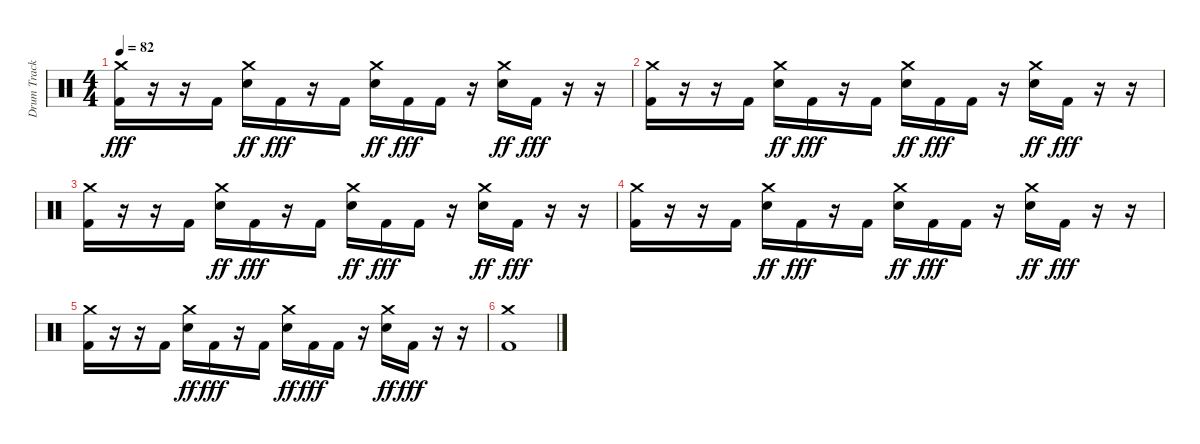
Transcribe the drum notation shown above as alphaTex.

\track ("Drum Track" "Drum Track") {instrument percussion}
\staff {score}
\articulation defaults
\ts (4 4)
\tempo 82
\clef neutral
\ks c
("Crash medium (hit)" "Kick (hit) 2").16{dy fff} r.16 r.16 "Kick (hit) 2".16 ("Crash medium (hit)" "Electric Snare (hit)").16{dy ff} "Kick (hit) 2".16{dy fff} r.16 "Kick (hit) 2".16 ("Crash medium (hit)" "Electric Snare (hit)").16{dy ff} "Kick (hit) 2".16{dy fff} "Kick (hit) 2".16 r.16 ("Crash medium (hit)" "Electric Snare (hit)").16{dy ff} "Kick (hit) 2".16{dy fff} r.16 r.16 |
("Crash medium (hit)" "Kick (hit) 2").16 r.16 r.16 "Kick (hit) 2".16 ("Crash medium (hit)" "Electric Snare (hit)").16{dy ff} "Kick (hit) 2".16{dy fff} r.16 "Kick (hit) 2".16 ("Crash medium (hit)" "Electric Snare (hit)").16{dy ff} "Kick (hit) 2".16{dy fff} "Kick (hit) 2".16 r.16 ("Crash medium (hit)" "Electric Snare (hit)").16{dy ff} "Kick (hit) 2".16{dy fff} r.16 r.16 |
("Crash medium (hit)" "Kick (hit) 2").16 r.16 r.16 "Kick (hit) 2".16 ("Crash medium (hit)" "Electric Snare (hit)").16{dy ff} "Kick (hit) 2".16{dy fff} r.16 "Kick (hit) 2".16 ("Crash medium (hit)" "Electric Snare (hit)").16{dy ff} "Kick (hit) 2".16{dy fff} "Kick (hit) 2".16 r.16 ("Crash medium (hit)" "Electric Snare (hit)").16{dy ff} "Kick (hit) 2".16{dy fff} r.16 r.16 |
("Crash medium (hit)" "Kick (hit) 2").16 r.16 r.16 "Kick (hit) 2".16 ("Crash medium (hit)" "Electric Snare (hit)").16{dy ff} "Kick (hit) 2".16{dy fff} r.16 "Kick (hit) 2".16 ("Crash medium (hit)" "Electric Snare (hit)").16{dy ff} "Kick (hit) 2".16{dy fff} "Kick (hit) 2".16 r.16 ("Crash medium (hit)" "Electric Snare (hit)").16{dy ff} "Kick (hit) 2".16{dy fff} r.16 r.16 |
("Crash medium (hit)" "Kick (hit) 2").16 r.16 r.16 "Kick (hit) 2".16 ("Crash medium (hit)" "Electric Snare (hit)").16{dy ff} "Kick (hit) 2".16{dy fff} r.16 "Kick (hit) 2".16 ("Crash medium (hit)" "Electric Snare (hit)").16{dy ff} "Kick (hit) 2".16{dy fff} "Kick (hit) 2".16 r.16 ("Crash medium (hit)" "Electric Snare (hit)").16{dy ff} "Kick (hit) 2".16{dy fff} r.16 r.16 |
("Crash medium (hit)" "Kick (hit) 2").1
